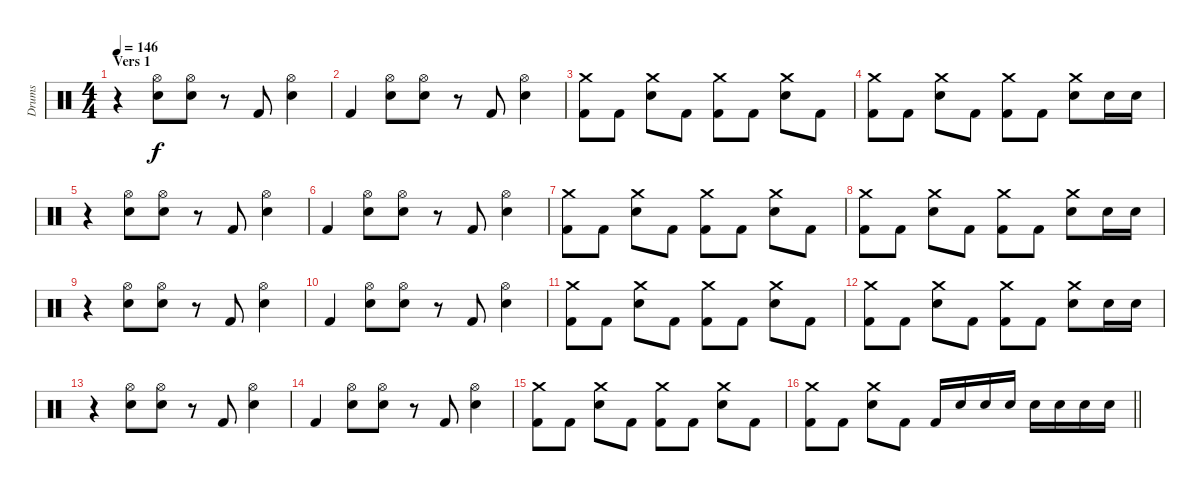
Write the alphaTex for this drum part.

\track ("Drums" "Drums") {instrument percussion}
\staff {score}
\articulation defaults
\ts (4 4)
\section ("" "Vers 1")
\tempo 146
\clef neutral
\ks c
r.4{dy f} ("Hi-Hat (open)" "Electric Snare (hit)").8 ("Hi-Hat (open)" "Electric Snare (hit)").8 r.8 "Kick (hit) 2".8 ("Hi-Hat (open)" "Electric Snare (hit)").4 |
"Kick (hit) 2".4 ("Hi-Hat (open)" "Electric Snare (hit)").8 ("Hi-Hat (open)" "Electric Snare (hit)").8 r.8 "Kick (hit) 2".8 ("Hi-Hat (open)" "Electric Snare (hit)").4 |
("Crash medium (hit)" "Kick (hit) 2").8 "Kick (hit) 2".8 ("Crash medium (hit)" "Electric Snare (hit)").8 "Kick (hit) 2".8 ("Crash medium (hit)" "Kick (hit) 2").8 "Kick (hit) 2".8 ("Crash medium (hit)" "Electric Snare (hit)").8 "Kick (hit) 2".8 |
("Crash medium (hit)" "Kick (hit) 2").8 "Kick (hit) 2".8 ("Crash medium (hit)" "Electric Snare (hit)").8 "Kick (hit) 2".8 ("Crash medium (hit)" "Kick (hit) 2").8 "Kick (hit) 2".8 ("Crash medium (hit)" "Electric Snare (hit)").8 "Electric Snare (hit)".16 "Electric Snare (hit)".16 |
r.4 ("Hi-Hat (open)" "Electric Snare (hit)").8 ("Hi-Hat (open)" "Electric Snare (hit)").8 r.8 "Kick (hit) 2".8 ("Hi-Hat (open)" "Electric Snare (hit)").4 |
"Kick (hit) 2".4 ("Hi-Hat (open)" "Electric Snare (hit)").8 ("Hi-Hat (open)" "Electric Snare (hit)").8 r.8 "Kick (hit) 2".8 ("Hi-Hat (open)" "Electric Snare (hit)").4 |
("Crash medium (hit)" "Kick (hit) 2").8 "Kick (hit) 2".8 ("Crash medium (hit)" "Electric Snare (hit)").8 "Kick (hit) 2".8 ("Crash medium (hit)" "Kick (hit) 2").8 "Kick (hit) 2".8 ("Crash medium (hit)" "Electric Snare (hit)").8 "Kick (hit) 2".8 |
("Crash medium (hit)" "Kick (hit) 2").8 "Kick (hit) 2".8 ("Crash medium (hit)" "Electric Snare (hit)").8 "Kick (hit) 2".8 ("Crash medium (hit)" "Kick (hit) 2").8 "Kick (hit) 2".8 ("Crash medium (hit)" "Electric Snare (hit)").8 "Electric Snare (hit)".16 "Electric Snare (hit)".16 |
r.4 ("Hi-Hat (open)" "Electric Snare (hit)").8 ("Hi-Hat (open)" "Electric Snare (hit)").8 r.8 "Kick (hit) 2".8 ("Hi-Hat (open)" "Electric Snare (hit)").4 |
"Kick (hit) 2".4 ("Hi-Hat (open)" "Electric Snare (hit)").8 ("Hi-Hat (open)" "Electric Snare (hit)").8 r.8 "Kick (hit) 2".8 ("Hi-Hat (open)" "Electric Snare (hit)").4 |
("Crash medium (hit)" "Kick (hit) 2").8 "Kick (hit) 2".8 ("Crash medium (hit)" "Electric Snare (hit)").8 "Kick (hit) 2".8 ("Crash medium (hit)" "Kick (hit) 2").8 "Kick (hit) 2".8 ("Crash medium (hit)" "Electric Snare (hit)").8 "Kick (hit) 2".8 |
("Crash medium (hit)" "Kick (hit) 2").8 "Kick (hit) 2".8 ("Crash medium (hit)" "Electric Snare (hit)").8 "Kick (hit) 2".8 ("Crash medium (hit)" "Kick (hit) 2").8 "Kick (hit) 2".8 ("Crash medium (hit)" "Electric Snare (hit)").8 "Electric Snare (hit)".16 "Electric Snare (hit)".16 |
r.4 ("Hi-Hat (open)" "Electric Snare (hit)").8 ("Hi-Hat (open)" "Electric Snare (hit)").8 r.8 "Kick (hit) 2".8 ("Hi-Hat (open)" "Electric Snare (hit)").4 |
"Kick (hit) 2".4 ("Hi-Hat (open)" "Electric Snare (hit)").8 ("Hi-Hat (open)" "Electric Snare (hit)").8 r.8 "Kick (hit) 2".8 ("Hi-Hat (open)" "Electric Snare (hit)").4 |
("Crash medium (hit)" "Kick (hit) 2").8 "Kick (hit) 2".8 ("Crash medium (hit)" "Electric Snare (hit)").8 "Kick (hit) 2".8 ("Crash medium (hit)" "Kick (hit) 2").8 "Kick (hit) 2".8 ("Crash medium (hit)" "Electric Snare (hit)").8 "Kick (hit) 2".8 |
\barLineRight lightlight
("Crash medium (hit)" "Kick (hit) 2").8 "Kick (hit) 2".8 ("Crash medium (hit)" "Electric Snare (hit)").8 "Kick (hit) 2".8 "Kick (hit) 2".16 "Electric Snare (hit)".16 "Electric Snare (hit)".16 "Electric Snare (hit)".16 "Electric Snare (hit)".16 "Electric Snare (hit)".16 "Electric Snare (hit)".16 "Electric Snare (hit)".16
